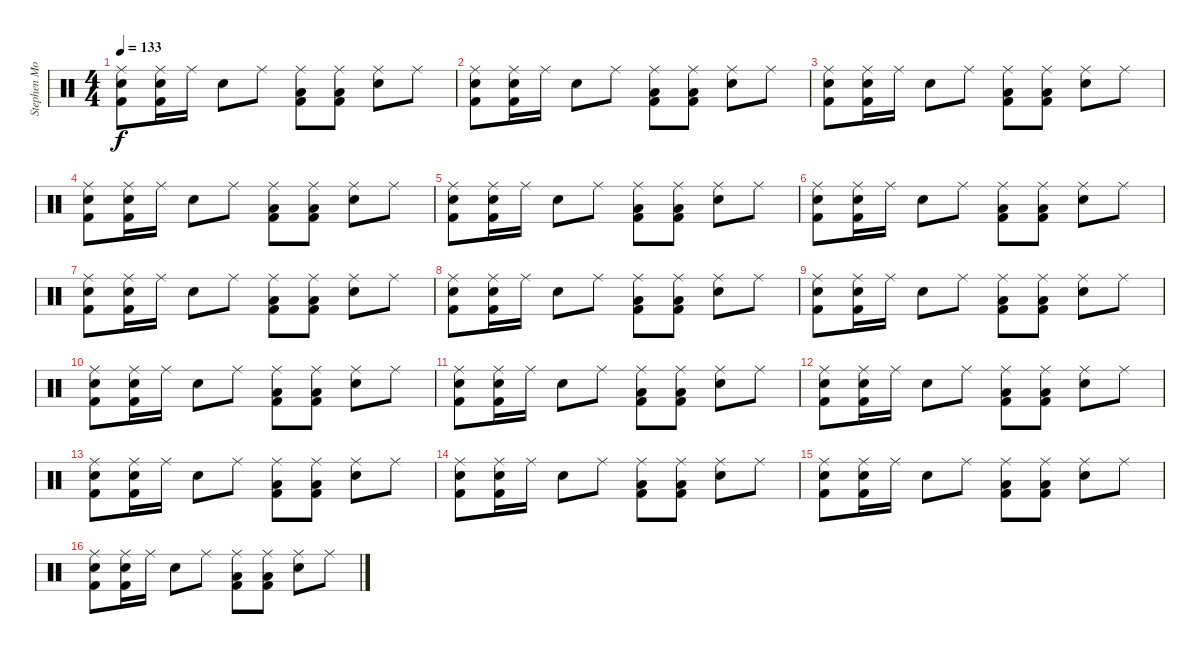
\track ("Stephen Morris - Drums" "Stephen Mo") {instrument percussion}
\staff {score}
\articulation defaults
\ts (4 4)
\tempo 133
\clef neutral
\ks c
("Ride (middle)" "Electric Snare (hit)" "Kick (hit) 2").8{dy f} ("Ride (middle)" "Electric Snare (hit)" "Kick (hit) 2").16 "Ride (middle)".16 "Electric Snare (hit)".8 "Ride (middle)".8 ("Ride (middle)" "Low Tom (hit)" "Kick (hit) 2").8 ("Ride (middle)" "Low Tom (hit)" "Kick (hit) 2").8 ("Ride (middle)" "Electric Snare (hit)").8 "Ride (middle)".8 |
("Ride (middle)" "Electric Snare (hit)" "Kick (hit) 2").8 ("Ride (middle)" "Electric Snare (hit)" "Kick (hit) 2").16 "Ride (middle)".16 "Electric Snare (hit)".8 "Ride (middle)".8 ("Ride (middle)" "Low Tom (hit)" "Kick (hit) 2").8 ("Ride (middle)" "Low Tom (hit)" "Kick (hit) 2").8 ("Ride (middle)" "Electric Snare (hit)").8 "Ride (middle)".8 |
("Ride (middle)" "Electric Snare (hit)" "Kick (hit) 2").8 ("Ride (middle)" "Electric Snare (hit)" "Kick (hit) 2").16 "Ride (middle)".16 "Electric Snare (hit)".8 "Ride (middle)".8 ("Ride (middle)" "Low Tom (hit)" "Kick (hit) 2").8 ("Ride (middle)" "Low Tom (hit)" "Kick (hit) 2").8 ("Ride (middle)" "Electric Snare (hit)").8 "Ride (middle)".8 |
("Ride (middle)" "Electric Snare (hit)" "Kick (hit) 2").8 ("Ride (middle)" "Electric Snare (hit)" "Kick (hit) 2").16 "Ride (middle)".16 "Electric Snare (hit)".8 "Ride (middle)".8 ("Ride (middle)" "Low Tom (hit)" "Kick (hit) 2").8 ("Ride (middle)" "Low Tom (hit)" "Kick (hit) 2").8 ("Ride (middle)" "Electric Snare (hit)").8 "Ride (middle)".8 |
("Ride (middle)" "Electric Snare (hit)" "Kick (hit) 2").8 ("Ride (middle)" "Electric Snare (hit)" "Kick (hit) 2").16 "Ride (middle)".16 "Electric Snare (hit)".8 "Ride (middle)".8 ("Ride (middle)" "Low Tom (hit)" "Kick (hit) 2").8 ("Ride (middle)" "Low Tom (hit)" "Kick (hit) 2").8 ("Ride (middle)" "Electric Snare (hit)").8 "Ride (middle)".8 |
("Ride (middle)" "Electric Snare (hit)" "Kick (hit) 2").8 ("Ride (middle)" "Electric Snare (hit)" "Kick (hit) 2").16 "Ride (middle)".16 "Electric Snare (hit)".8 "Ride (middle)".8 ("Ride (middle)" "Low Tom (hit)" "Kick (hit) 2").8 ("Ride (middle)" "Low Tom (hit)" "Kick (hit) 2").8 ("Ride (middle)" "Electric Snare (hit)").8 "Ride (middle)".8 |
("Ride (middle)" "Electric Snare (hit)" "Kick (hit) 2").8 ("Ride (middle)" "Electric Snare (hit)" "Kick (hit) 2").16 "Ride (middle)".16 "Electric Snare (hit)".8 "Ride (middle)".8 ("Ride (middle)" "Low Tom (hit)" "Kick (hit) 2").8 ("Ride (middle)" "Low Tom (hit)" "Kick (hit) 2").8 ("Ride (middle)" "Electric Snare (hit)").8 "Ride (middle)".8 |
("Ride (middle)" "Electric Snare (hit)" "Kick (hit) 2").8 ("Ride (middle)" "Electric Snare (hit)" "Kick (hit) 2").16 "Ride (middle)".16 "Electric Snare (hit)".8 "Ride (middle)".8 ("Ride (middle)" "Low Tom (hit)" "Kick (hit) 2").8 ("Ride (middle)" "Low Tom (hit)" "Kick (hit) 2").8 ("Ride (middle)" "Electric Snare (hit)").8 "Ride (middle)".8 |
("Ride (middle)" "Electric Snare (hit)" "Kick (hit) 2").8 ("Ride (middle)" "Electric Snare (hit)" "Kick (hit) 2").16 "Ride (middle)".16 "Electric Snare (hit)".8 "Ride (middle)".8 ("Ride (middle)" "Low Tom (hit)" "Kick (hit) 2").8 ("Ride (middle)" "Low Tom (hit)" "Kick (hit) 2").8 ("Ride (middle)" "Electric Snare (hit)").8 "Ride (middle)".8 |
("Ride (middle)" "Electric Snare (hit)" "Kick (hit) 2").8 ("Ride (middle)" "Electric Snare (hit)" "Kick (hit) 2").16 "Ride (middle)".16 "Electric Snare (hit)".8 "Ride (middle)".8 ("Ride (middle)" "Low Tom (hit)" "Kick (hit) 2").8 ("Ride (middle)" "Low Tom (hit)" "Kick (hit) 2").8 ("Ride (middle)" "Electric Snare (hit)").8 "Ride (middle)".8 |
("Ride (middle)" "Electric Snare (hit)" "Kick (hit) 2").8 ("Ride (middle)" "Electric Snare (hit)" "Kick (hit) 2").16 "Ride (middle)".16 "Electric Snare (hit)".8 "Ride (middle)".8 ("Ride (middle)" "Low Tom (hit)" "Kick (hit) 2").8 ("Ride (middle)" "Low Tom (hit)" "Kick (hit) 2").8 ("Ride (middle)" "Electric Snare (hit)").8 "Ride (middle)".8 |
("Ride (middle)" "Electric Snare (hit)" "Kick (hit) 2").8 ("Ride (middle)" "Electric Snare (hit)" "Kick (hit) 2").16 "Ride (middle)".16 "Electric Snare (hit)".8 "Ride (middle)".8 ("Ride (middle)" "Low Tom (hit)" "Kick (hit) 2").8 ("Ride (middle)" "Low Tom (hit)" "Kick (hit) 2").8 ("Ride (middle)" "Electric Snare (hit)").8 "Ride (middle)".8 |
("Ride (middle)" "Electric Snare (hit)" "Kick (hit) 2").8 ("Ride (middle)" "Electric Snare (hit)" "Kick (hit) 2").16 "Ride (middle)".16 "Electric Snare (hit)".8 "Ride (middle)".8 ("Ride (middle)" "Low Tom (hit)" "Kick (hit) 2").8 ("Ride (middle)" "Low Tom (hit)" "Kick (hit) 2").8 ("Ride (middle)" "Electric Snare (hit)").8 "Ride (middle)".8 |
("Ride (middle)" "Electric Snare (hit)" "Kick (hit) 2").8 ("Ride (middle)" "Electric Snare (hit)" "Kick (hit) 2").16 "Ride (middle)".16 "Electric Snare (hit)".8 "Ride (middle)".8 ("Ride (middle)" "Low Tom (hit)" "Kick (hit) 2").8 ("Ride (middle)" "Low Tom (hit)" "Kick (hit) 2").8 ("Ride (middle)" "Electric Snare (hit)").8 "Ride (middle)".8 |
("Ride (middle)" "Electric Snare (hit)" "Kick (hit) 2").8 ("Ride (middle)" "Electric Snare (hit)" "Kick (hit) 2").16 "Ride (middle)".16 "Electric Snare (hit)".8 "Ride (middle)".8 ("Ride (middle)" "Low Tom (hit)" "Kick (hit) 2").8 ("Ride (middle)" "Low Tom (hit)" "Kick (hit) 2").8 ("Ride (middle)" "Electric Snare (hit)").8 "Ride (middle)".8 |
("Ride (middle)" "Electric Snare (hit)" "Kick (hit) 2").8 ("Ride (middle)" "Electric Snare (hit)" "Kick (hit) 2").16 "Ride (middle)".16 "Electric Snare (hit)".8 "Ride (middle)".8 ("Ride (middle)" "Low Tom (hit)" "Kick (hit) 2").8 ("Ride (middle)" "Low Tom (hit)" "Kick (hit) 2").8 ("Ride (middle)" "Electric Snare (hit)").8 "Ride (middle)".8
